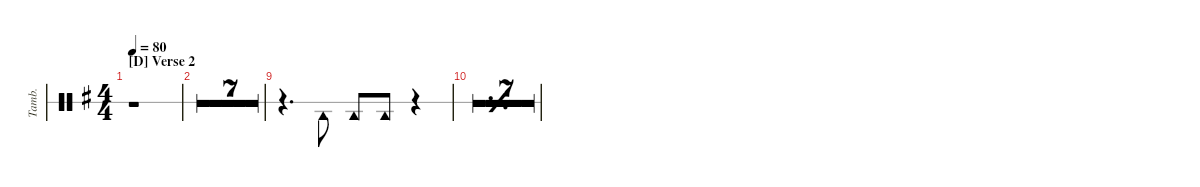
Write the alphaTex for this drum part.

\hideDynamics
\bracketExtendMode nobrackets
\otherSystemsTrackNameOrientation horizontal
\track ("Tambourine" "Tamb.") {multiBarRest instrument percussion}
\staff {score 1}
\articulation defaults
\ts (4 4)
\section ("D" "Verse 2")
\tempo 80
\clef neutral
\ks g
r.1{dy mf beam Down} |
r.1{beam Down} |
r.1{beam Down} |
r.1{beam Down} |
r.1{beam Down} |
r.1{beam Down} |
r.1{beam Down} |
r.1{beam Down} |
r.4{d beam Down} "Tambourine (hit)"{acc forcenatural}.8{beam Down} "Tambourine (hit)"{acc forcenatural}.8{beam Up} "Tambourine (hit)"{acc forcenatural}.8{beam Up} r.4{beam Up} |
\simile simple
|
\simile firstofdouble
|
\simile secondofdouble
|
\simile firstofdouble
|
\simile secondofdouble
|
\simile simple
|
\simile none
r.1{beam Down}
